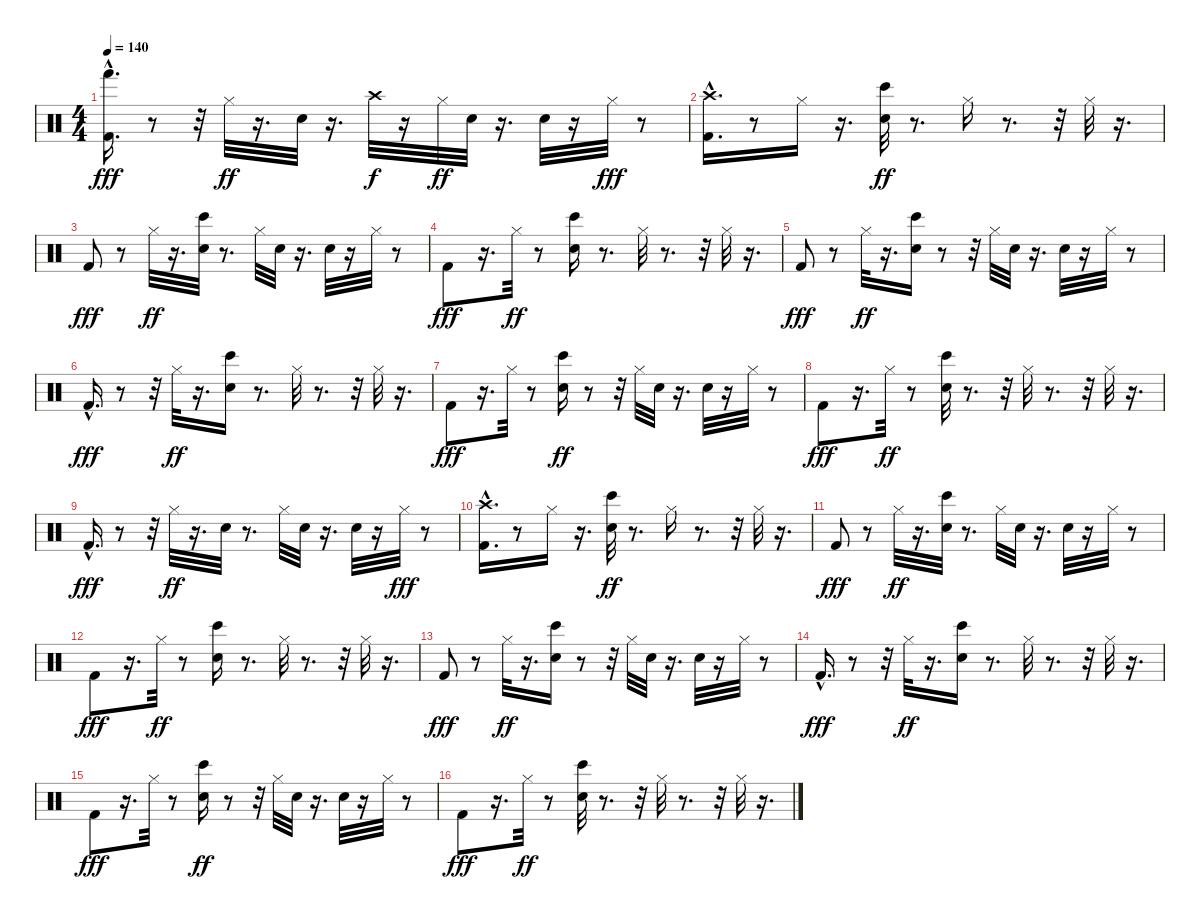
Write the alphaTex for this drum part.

\track "" {instrument percussion}
\staff {score}
\articulation defaults
\ts (4 4)
\tempo 140
\clef neutral
\ks c
("Hand (hit)" "Kick (hit) 2"{hac}).16{d dy fff} r.8 r.32 "Hi-Hat (closed)".32{dy ff} r.16{d} "Electric Snare (hit)".32 r.16{d} "Crash high (hit)".32{dy f} r.16 "Hi-Hat (closed)".32{dy ff} "Electric Snare (hit)".32 r.16{d} "Electric Snare (hit)".32 r.16 "Hi-Hat (closed)".32{dy fff} r.8 |
("Kick (hit) 2"{hac} "Crash high (hit)").16{d} r.8 "Hi-Hat (closed)".16 r.16{d} ("Bongo High (hit)" "Electric Snare (hit)").32{dy ff} r.8{d} "Hi-Hat (closed)".16 r.8{d} r.32 "Hi-Hat (closed)".32 r.16{d} |
"Kick (hit) 2".8{dy fff} r.8 "Hi-Hat (closed)".32{dy ff} r.16{d} ("Bongo High (hit)" "Electric Snare (hit)").32 r.8{d} "Hi-Hat (closed)".32 "Electric Snare (hit)".32 r.16{d} "Electric Snare (hit)".32 r.16 "Hi-Hat (closed)".32 r.8 |
"Kick (hit) 2".8{dy fff} r.16{d} "Hi-Hat (closed)".32{dy ff} r.8 ("Bongo High (hit)" "Electric Snare (hit)").16 r.8{d} "Hi-Hat (closed)".32 r.8{d} r.32 "Hi-Hat (closed)".32 r.16{d} |
"Kick (hit) 2".8{dy fff} r.8 "Hi-Hat (closed)".32{dy ff} r.16{d} ("Bongo High (hit)" "Electric Snare (hit)").16 r.8 r.32 "Hi-Hat (closed)".32 "Electric Snare (hit)".32 r.16{d} "Electric Snare (hit)".32 r.16 "Hi-Hat (closed)".32 r.8 |
"Kick (hit) 2"{hac}.16{d dy fff} r.8 r.32 "Hi-Hat (closed)".32{dy ff} r.16{d} ("Bongo High (hit)" "Electric Snare (hit)").16 r.8{d} "Hi-Hat (closed)".32 r.8{d} r.32 "Hi-Hat (closed)".32 r.16{d} |
"Kick (hit) 2".8{dy fff} r.16{d} "Hi-Hat (closed)".32 r.8 ("Electric Snare (hit)" "Bongo High (hit)").16{dy ff} r.8 r.32 "Hi-Hat (closed)".32 "Electric Snare (hit)".32 r.16{d} "Electric Snare (hit)".32 r.16 "Hi-Hat (closed)".32 r.8 |
"Kick (hit) 2".8{dy fff} r.16{d} "Hi-Hat (closed)".32{dy ff} r.8 ("Bongo High (hit)" "Electric Snare (hit)").32 r.8{d} r.32 "Hi-Hat (closed)".32 r.8{d} r.32 "Hi-Hat (closed)".32 r.16{d} |
"Kick (hit) 2"{hac}.16{d dy fff} r.8 r.32 "Hi-Hat (closed)".32{dy ff} r.16{d} "Electric Snare (hit)".32 r.8{d} "Hi-Hat (closed)".32 "Electric Snare (hit)".32 r.16{d} "Electric Snare (hit)".32 r.16 "Hi-Hat (closed)".32{dy fff} r.8 |
("Kick (hit) 2"{hac} "Crash high (hit)").16{d} r.8 "Hi-Hat (closed)".16 r.16{d} ("Bongo High (hit)" "Electric Snare (hit)").32{dy ff} r.8{d} "Hi-Hat (closed)".16 r.8{d} r.32 "Hi-Hat (closed)".32 r.16{d} |
"Kick (hit) 2".8{dy fff} r.8 "Hi-Hat (closed)".32{dy ff} r.16{d} ("Bongo High (hit)" "Electric Snare (hit)").32 r.8{d} "Hi-Hat (closed)".32 "Electric Snare (hit)".32 r.16{d} "Electric Snare (hit)".32 r.16 "Hi-Hat (closed)".32 r.8 |
"Kick (hit) 2".8{dy fff} r.16{d} "Hi-Hat (closed)".32{dy ff} r.8 ("Bongo High (hit)" "Electric Snare (hit)").16 r.8{d} "Hi-Hat (closed)".32 r.8{d} r.32 "Hi-Hat (closed)".32 r.16{d} |
"Kick (hit) 2".8{dy fff} r.8 "Hi-Hat (closed)".32{dy ff} r.16{d} ("Bongo High (hit)" "Electric Snare (hit)").16 r.8 r.32 "Hi-Hat (closed)".32 "Electric Snare (hit)".32 r.16{d} "Electric Snare (hit)".32 r.16 "Hi-Hat (closed)".32 r.8 |
"Kick (hit) 2"{hac}.16{d dy fff} r.8 r.32 "Hi-Hat (closed)".32{dy ff} r.16{d} ("Bongo High (hit)" "Electric Snare (hit)").16 r.8{d} "Hi-Hat (closed)".32 r.8{d} r.32 "Hi-Hat (closed)".32 r.16{d} |
"Kick (hit) 2".8{dy fff} r.16{d} "Hi-Hat (closed)".32 r.8 ("Electric Snare (hit)" "Bongo High (hit)").16{dy ff} r.8 r.32 "Hi-Hat (closed)".32 "Electric Snare (hit)".32 r.16{d} "Electric Snare (hit)".32 r.16 "Hi-Hat (closed)".32 r.8 |
"Kick (hit) 2".8{dy fff} r.16{d} "Hi-Hat (closed)".32{dy ff} r.8 ("Bongo High (hit)" "Electric Snare (hit)").32 r.8{d} r.32 "Hi-Hat (closed)".32 r.8{d} r.32 "Hi-Hat (closed)".32 r.16{d}
